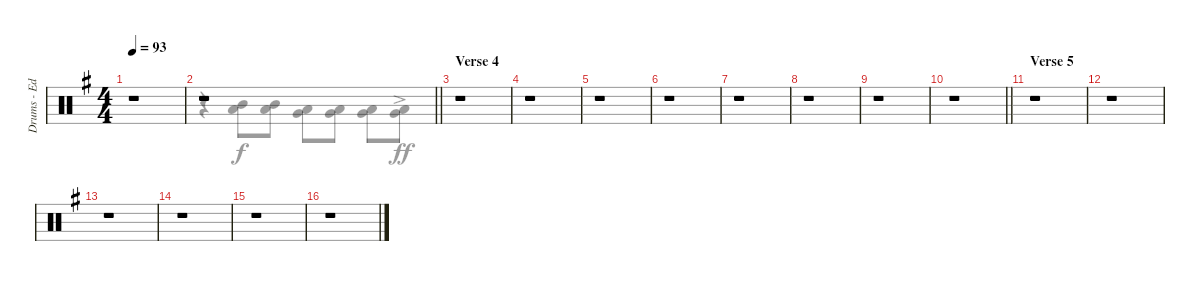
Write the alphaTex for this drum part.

\track ("Drums - Ed Warby" "Drums - Ed") {instrument percussion}
\staff {score}
\articulation defaults
\voice
\ts (4 4)
\tempo 93
\clef neutral
\ks eminor
r.1{dy mf} |
\barLineRight lightlight
r.1 |
\section ("" "Verse 4")
r.1 |
r.1 |
r.1 |
r.1 |
r.1 |
r.1 |
r.1 |
\barLineRight lightlight
r.1 |
\section ("" "Verse 5")
r.1 |
r.1 |
r.1 |
r.1 |
r.1 |
r.1
\voice
\clef neutral
\ottava regular
\simile none
\ks eminor
|
\barLineRight lightlight
r.4 ("Mid Tom (hit)" "Low Tom (hit)").8{dy f} ("Mid Tom (hit)" "Low Tom (hit)").8 ("Low Tom (hit)" "Very Low Tom (hit)").8 ("Low Tom (hit)" "Very Low Tom (hit)").8 ("Very Low Tom (hit)" "Low Floor Tom (hit)").8 ("Very Low Tom (hit)"{ac} "Low Floor Tom (hit)"{ac}).8{dy ff} |
|
|
|
|
|
|
|
\barLineRight lightlight
|
|
|
|
|
|
